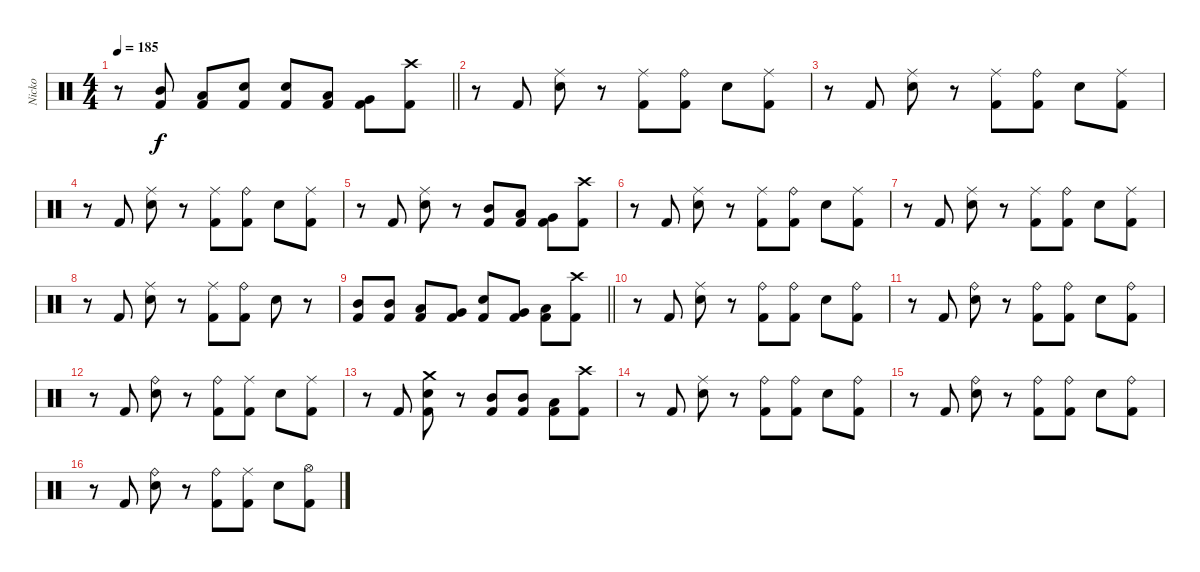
\track ("Nicko" "Nicko") {instrument percussion}
\staff {score}
\articulation defaults
\ts (4 4)
\tempo 185
\clef neutral
\barLineRight lightlight
\ks c
r.8{dy f} ("Mid Tom (hit)" "Kick (hit) 2").8 ("Low Tom (hit)" "Kick (hit) 2").8 ("Snare (hit) 2" "Kick (hit) 2").8 ("Snare (hit) 2" "Kick (hit) 2").8 ("Low Tom (hit)" "Kick (hit) 2").8 ("Very Low Tom (hit)" "Kick (hit) 2").8 ("Crash high (hit)" "Kick (hit) 2").8 |
r.8 "Kick (hit) 2".8 ("Ride (middle)" "Snare (hit) 2").8 r.8 ("Ride (middle)" "Kick (hit) 2").8 ("Ride (bell)" "Kick (hit) 2").8 "Snare (hit) 2".8 ("Ride (middle)" "Kick (hit) 2").8 |
r.8 "Kick (hit) 2".8 ("Ride (middle)" "Snare (hit) 2").8 r.8 ("Ride (middle)" "Kick (hit) 2").8 ("Ride (bell)" "Kick (hit) 2").8 "Snare (hit) 2".8 ("Ride (middle)" "Kick (hit) 2").8 |
r.8 "Kick (hit) 2".8 ("Ride (middle)" "Snare (hit) 2").8 r.8 ("Ride (middle)" "Kick (hit) 2").8 ("Ride (bell)" "Kick (hit) 2").8 "Snare (hit) 2".8 ("Ride (middle)" "Kick (hit) 2").8 |
r.8 "Kick (hit) 2".8 ("Ride (middle)" "Snare (hit) 2").8 r.8 ("Mid Tom (hit)" "Kick (hit) 2").8 ("Low Tom (hit)" "Kick (hit) 2").8 ("Very Low Tom (hit)" "Kick (hit) 2").8 ("Crash high (hit)" "Kick (hit) 2").8 |
r.8 "Kick (hit) 2".8 ("Ride (middle)" "Snare (hit) 2").8 r.8 ("Ride (middle)" "Kick (hit) 2").8 ("Ride (bell)" "Kick (hit) 2").8 "Snare (hit) 2".8 ("Ride (middle)" "Kick (hit) 2").8 |
r.8 "Kick (hit) 2".8 ("Ride (middle)" "Snare (hit) 2").8 r.8 ("Ride (middle)" "Kick (hit) 2").8 ("Ride (bell)" "Kick (hit) 2").8 "Snare (hit) 2".8 ("Ride (middle)" "Kick (hit) 2").8 |
r.8 "Kick (hit) 2".8 ("Ride (middle)" "Snare (hit) 2").8 r.8 ("Ride (middle)" "Kick (hit) 2").8 ("Ride (bell)" "Kick (hit) 2").8 "Snare (hit) 2".8 r.8 |
\barLineRight lightlight
("Mid Tom (hit)" "Kick (hit) 2").8 ("Mid Tom (hit)" "Kick (hit) 2").8 ("Low Tom (hit)" "Kick (hit) 2").8 ("Very Low Tom (hit)" "Kick (hit) 2").8 ("Snare (hit) 2" "Kick (hit) 2").8 ("Very Low Tom (hit)" "Kick (hit) 2").8 ("Low Floor Tom (hit)" "Kick (hit) 2").8 ("Crash high (hit)" "Kick (hit) 2").8 |
r.8 "Kick (hit) 2".8 ("Ride (middle)" "Snare (hit) 2").8 r.8 ("Ride (bell)" "Kick (hit) 2").8 ("Ride (bell)" "Kick (hit) 2").8 "Snare (hit) 2".8 ("Ride (bell)" "Kick (hit) 2").8 |
r.8 "Kick (hit) 2".8 ("Ride (bell)" "Snare (hit) 2").8 r.8 ("Ride (bell)" "Kick (hit) 2").8 ("Ride (bell)" "Kick (hit) 2").8 "Snare (hit) 2".8 ("Ride (bell)" "Kick (hit) 2").8 |
r.8 "Kick (hit) 2".8 ("Ride (bell)" "Snare (hit) 2").8 r.8 ("Ride (bell)" "Kick (hit) 2").8 ("Ride (middle)" "Kick (hit) 2").8 "Snare (hit) 2".8 ("Ride (middle)" "Kick (hit) 2").8 |
r.8 "Kick (hit) 2".8 ("Crash medium (hit)" "Snare (hit) 2" "Kick (hit) 2").8 r.8 ("Mid Tom (hit)" "Kick (hit) 2").8 ("Mid Tom (hit)" "Kick (hit) 2").8 ("Low Tom (hit)" "Kick (hit) 2").8 ("Crash high (hit)" "Kick (hit) 2").8 |
r.8 "Kick (hit) 2".8 ("Ride (middle)" "Snare (hit) 2").8 r.8 ("Ride (bell)" "Kick (hit) 2").8 ("Ride (bell)" "Kick (hit) 2").8 "Snare (hit) 2".8 ("Ride (bell)" "Kick (hit) 2").8 |
r.8 "Kick (hit) 2".8 ("Ride (bell)" "Snare (hit) 2").8 r.8 ("Ride (bell)" "Kick (hit) 2").8 ("Ride (bell)" "Kick (hit) 2").8 "Snare (hit) 2".8 ("Ride (bell)" "Kick (hit) 2").8 |
r.8 "Kick (hit) 2".8 ("Ride (bell)" "Snare (hit) 2").8 r.8 ("Ride (bell)" "Kick (hit) 2").8 ("Ride (middle)" "Kick (hit) 2").8 "Snare (hit) 2".8 ("Hi-Hat (open)" "Kick (hit) 2").8
